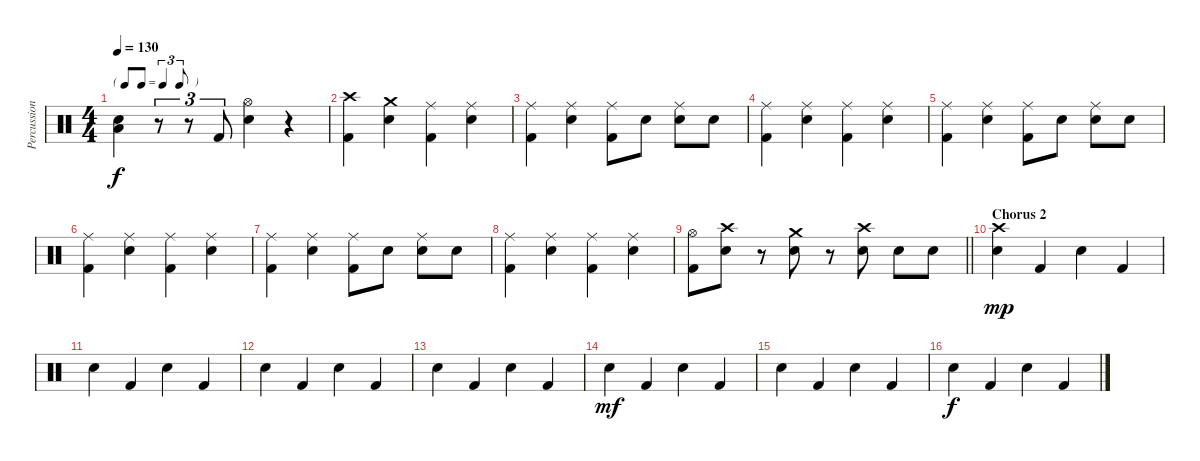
\track ("Percussion" "Percussion") {instrument percussion}
\staff {score}
\articulation defaults
\ts (4 4)
\tf triplet8th
\tempo 130
\clef neutral
\ks c
("Snare (hit) 2" "Low Floor Tom (hit)").4{dy f} r.8{tu (3 2)} r.8{tu (3 2)} "Kick (hit) 2".8{tu (3 2)} ("Hi-Hat (open)" "Snare (hit) 2").4 r.4 |
("Crash high (hit)" "Kick (hit) 2").4 ("Crash medium (hit)" "Snare (hit) 2").4 ("Ride (middle)" "Kick (hit) 2").4 ("Ride (middle)" "Snare (hit) 2").4 |
("Ride (middle)" "Kick (hit) 2").4 ("Ride (middle)" "Snare (hit) 2").4 ("Ride (middle)" "Kick (hit) 2").8 "Snare (hit) 2".8 ("Ride (middle)" "Snare (hit) 2").8 "Snare (hit) 2".8 |
("Ride (middle)" "Kick (hit) 2").4 ("Ride (middle)" "Snare (hit) 2").4 ("Ride (middle)" "Kick (hit) 2").4 ("Ride (middle)" "Snare (hit) 2").4 |
("Ride (middle)" "Kick (hit) 2").4 ("Ride (middle)" "Snare (hit) 2").4 ("Ride (middle)" "Kick (hit) 2").8 "Snare (hit) 2".8 ("Ride (middle)" "Snare (hit) 2").8 "Snare (hit) 2".8 |
("Ride (middle)" "Kick (hit) 2").4 ("Ride (middle)" "Snare (hit) 2").4 ("Ride (middle)" "Kick (hit) 2").4 ("Ride (middle)" "Snare (hit) 2").4 |
("Ride (middle)" "Kick (hit) 2").4 ("Ride (middle)" "Snare (hit) 2").4 ("Ride (middle)" "Kick (hit) 2").8 "Snare (hit) 2".8 ("Ride (middle)" "Snare (hit) 2").8 "Snare (hit) 2".8 |
("Ride (middle)" "Kick (hit) 2").4 ("Ride (middle)" "Snare (hit) 2").4 ("Ride (middle)" "Kick (hit) 2").4 ("Ride (middle)" "Snare (hit) 2").4 |
\barLineRight lightlight
("Hi-Hat (open)" "Kick (hit) 2").8 ("Crash high (hit)" "Snare (hit) 2").8 r.8 ("Crash medium (hit)" "Snare (hit) 2").8 r.8 ("Crash high (hit)" "Snare (hit) 2").8 "Snare (hit) 2".8 "Snare (hit) 2".8 |
\section ("" "Chorus 2")
("Crash high (hit)" "Snare (hit) 2").4{dy mp} "Kick (hit) 2".4 "Snare (hit) 2".4 "Kick (hit) 2".4 |
"Snare (hit) 2".4 "Kick (hit) 2".4 "Snare (hit) 2".4 "Kick (hit) 2".4 |
"Snare (hit) 2".4 "Kick (hit) 2".4 "Snare (hit) 2".4 "Kick (hit) 2".4 |
"Snare (hit) 2".4 "Kick (hit) 2".4 "Snare (hit) 2".4 "Kick (hit) 2".4 |
"Snare (hit) 2".4{dy mf} "Kick (hit) 2".4 "Snare (hit) 2".4 "Kick (hit) 2".4 |
"Snare (hit) 2".4 "Kick (hit) 2".4 "Snare (hit) 2".4 "Kick (hit) 2".4 |
"Snare (hit) 2".4{dy f} "Kick (hit) 2".4 "Snare (hit) 2".4 "Kick (hit) 2".4
